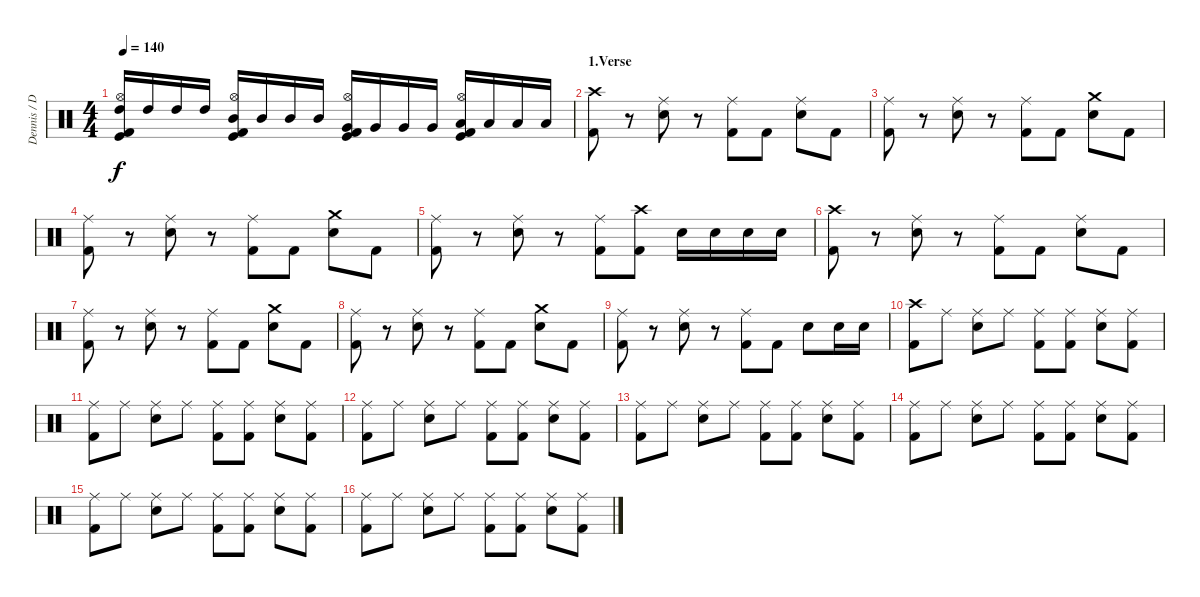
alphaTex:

\track ("Dennis / Drums" "Dennis / D") {instrument percussion}
\staff {score}
\articulation defaults
\ts (4 4)
\tempo 140
\clef neutral
\ks c
("Kick (hit)" "Hi-Hat (open)" "Kick (hit) 2" "High Tom (hit)").16{dy f} "High Tom (hit)".16 "High Tom (hit)".16 "High Tom (hit)".16 ("Kick (hit)" "Hi-Hat (open)" "Kick (hit) 2" "Mid Tom (hit)").16 "Mid Tom (hit)".16 "Mid Tom (hit)".16 "Mid Tom (hit)".16 ("Kick (hit)" "Hi-Hat (open)" "Kick (hit) 2" "Very Low Tom (hit)").16 "Very Low Tom (hit)".16 "Very Low Tom (hit)".16 "Very Low Tom (hit)".16 ("Kick (hit)" "Hi-Hat (open)" "Kick (hit) 2" "Low Tom (hit)").16 "Low Tom (hit)".16 "Low Tom (hit)".16 "Low Tom (hit)".16 |
\section ("" "1.Verse")
("Crash high (hit)" "Kick (hit) 2").8 r.8 ("Ride (middle)" "Electric Snare (hit)").8 r.8 ("Ride (middle)" "Kick (hit) 2").8 "Kick (hit) 2".8 ("Ride (middle)" "Electric Snare (hit)").8 "Kick (hit) 2".8 |
("Ride (middle)" "Kick (hit) 2").8 r.8 ("Ride (middle)" "Electric Snare (hit)").8 r.8 ("Ride (middle)" "Kick (hit) 2").8 "Kick (hit) 2".8 ("Crash medium (hit)" "Electric Snare (hit)").8 "Kick (hit) 2".8 |
("Ride (middle)" "Kick (hit) 2").8 r.8 ("Ride (middle)" "Electric Snare (hit)").8 r.8 ("Ride (middle)" "Kick (hit) 2").8 "Kick (hit) 2".8 ("Crash medium (hit)" "Electric Snare (hit)").8 "Kick (hit) 2".8 |
("Ride (middle)" "Kick (hit) 2").8 r.8 ("Ride (middle)" "Electric Snare (hit)").8 r.8 ("Ride (middle)" "Kick (hit) 2").8 ("Crash high (hit)" "Kick (hit) 2").8 "Electric Snare (hit)".16 "Electric Snare (hit)".16 "Electric Snare (hit)".16 "Electric Snare (hit)".16 |
("Crash high (hit)" "Kick (hit) 2").8 r.8 ("Ride (middle)" "Electric Snare (hit)").8 r.8 ("Ride (middle)" "Kick (hit) 2").8 "Kick (hit) 2".8 ("Ride (middle)" "Electric Snare (hit)").8 "Kick (hit) 2".8 |
("Ride (middle)" "Kick (hit) 2").8 r.8 ("Ride (middle)" "Electric Snare (hit)").8 r.8 ("Ride (middle)" "Kick (hit) 2").8 "Kick (hit) 2".8 ("Crash medium (hit)" "Electric Snare (hit)").8 "Kick (hit) 2".8 |
("Ride (middle)" "Kick (hit) 2").8 r.8 ("Ride (middle)" "Electric Snare (hit)").8 r.8 ("Ride (middle)" "Kick (hit) 2").8 "Kick (hit) 2".8 ("Crash medium (hit)" "Electric Snare (hit)").8 "Kick (hit) 2".8 |
("Ride (middle)" "Kick (hit) 2").8 r.8 ("Ride (middle)" "Electric Snare (hit)").8 r.8 ("Ride (middle)" "Kick (hit) 2").8 "Kick (hit) 2".8 "Electric Snare (hit)".8 "Electric Snare (hit)".16 "Electric Snare (hit)".16 |
("Crash high (hit)" "Kick (hit) 2").8 "Ride (middle)".8 ("Ride (middle)" "Electric Snare (hit)").8 "Ride (middle)".8 ("Ride (middle)" "Kick (hit) 2").8 ("Ride (middle)" "Kick (hit) 2").8 ("Ride (middle)" "Electric Snare (hit)").8 ("Ride (middle)" "Kick (hit) 2").8 |
("Ride (middle)" "Kick (hit) 2").8 "Ride (middle)".8 ("Ride (middle)" "Electric Snare (hit)").8 "Ride (middle)".8 ("Ride (middle)" "Kick (hit) 2").8 ("Ride (middle)" "Kick (hit) 2").8 ("Ride (middle)" "Electric Snare (hit)").8 ("Ride (middle)" "Kick (hit) 2").8 |
("Ride (middle)" "Kick (hit) 2").8 "Ride (middle)".8 ("Ride (middle)" "Electric Snare (hit)").8 "Ride (middle)".8 ("Ride (middle)" "Kick (hit) 2").8 ("Ride (middle)" "Kick (hit) 2").8 ("Ride (middle)" "Electric Snare (hit)").8 ("Ride (middle)" "Kick (hit) 2").8 |
("Ride (middle)" "Kick (hit) 2").8 "Ride (middle)".8 ("Ride (middle)" "Electric Snare (hit)").8 "Ride (middle)".8 ("Ride (middle)" "Kick (hit) 2").8 ("Ride (middle)" "Kick (hit) 2").8 ("Ride (middle)" "Electric Snare (hit)").8 ("Ride (middle)" "Kick (hit) 2").8 |
("Ride (middle)" "Kick (hit) 2").8 "Ride (middle)".8 ("Ride (middle)" "Electric Snare (hit)").8 "Ride (middle)".8 ("Ride (middle)" "Kick (hit) 2").8 ("Ride (middle)" "Kick (hit) 2").8 ("Ride (middle)" "Electric Snare (hit)").8 ("Ride (middle)" "Kick (hit) 2").8 |
("Ride (middle)" "Kick (hit) 2").8 "Ride (middle)".8 ("Ride (middle)" "Electric Snare (hit)").8 "Ride (middle)".8 ("Ride (middle)" "Kick (hit) 2").8 ("Ride (middle)" "Kick (hit) 2").8 ("Ride (middle)" "Electric Snare (hit)").8 ("Ride (middle)" "Kick (hit) 2").8 |
("Ride (middle)" "Kick (hit) 2").8 "Ride (middle)".8 ("Ride (middle)" "Electric Snare (hit)").8 "Ride (middle)".8 ("Ride (middle)" "Kick (hit) 2").8 ("Ride (middle)" "Kick (hit) 2").8 ("Ride (middle)" "Electric Snare (hit)").8 ("Ride (middle)" "Kick (hit) 2").8
